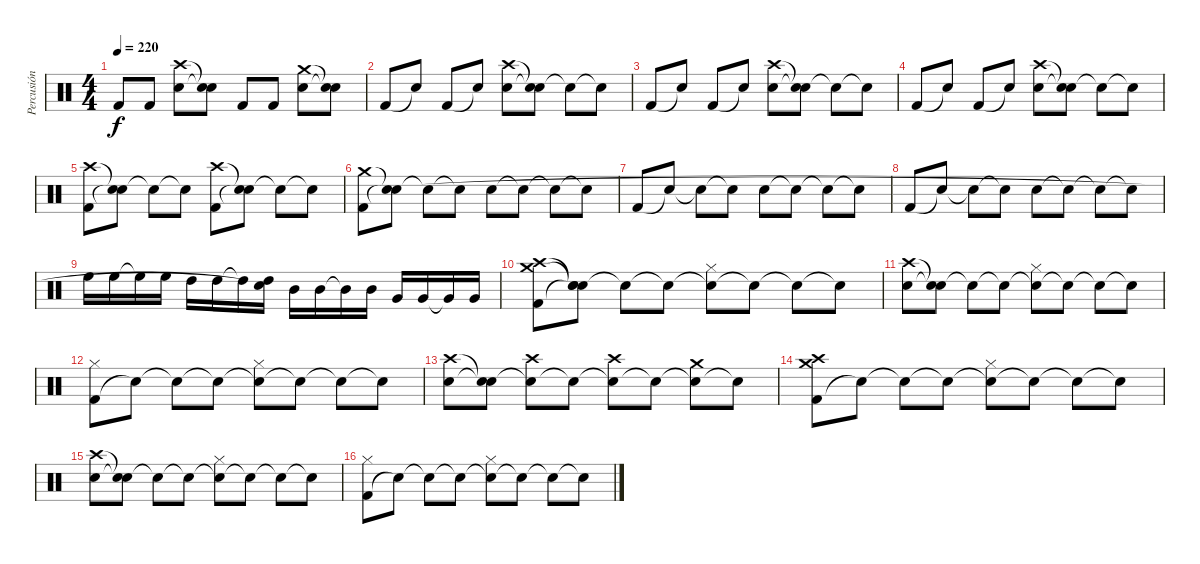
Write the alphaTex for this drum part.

\track ("Percusión" "Percusión") {instrument percussion}
\staff {score}
\articulation defaults
\ts (4 4)
\tempo 220
\clef neutral
\ks c "Kick (hit) 2".8{dy f} "Kick (hit) 2".8
("Snare (hit) 2" "Crash high (hit)").8 ("Snare (hit)"{t} "Snare (hit)"{t}).8 "Kick (hit) 2".8 "Kick (hit) 2".8 ("Snare (hit) 2" "Crash medium (hit)").8 ("Snare (hit)"{t} "Snare (hit)"{t}).8 |
"Kick (hit) 2".8 "Snare (hit)"{t}.8 "Kick (hit) 2".8 "Snare (hit)"{t}.8 ("Snare (hit) 2" "Crash high (hit)").8 ("Snare (hit)"{t} "Snare (hit)"{t}).8 "Snare (hit)"{t}.8 "Snare (hit)"{t}.8 |
"Kick (hit) 2".8 "Snare (hit)"{t}.8 "Kick (hit) 2".8 "Snare (hit)"{t}.8 ("Snare (hit) 2" "Crash high (hit)").8 ("Snare (hit)"{t} "Snare (hit)"{t}).8 "Snare (hit)"{t}.8 "Snare (hit)"{t}.8 |
"Kick (hit) 2".8 "Snare (hit)"{t}.8 "Kick (hit) 2".8 "Snare (hit)"{t}.8 ("Snare (hit) 2" "Crash high (hit)").8 ("Snare (hit)"{t} "Snare (hit)"{t}).8 "Snare (hit)"{t}.8 "Snare (hit)"{t}.8 |
("Kick (hit) 2" "Crash high (hit)").8 ("Snare (hit)"{t} "Snare (hit)"{t}).8 "Snare (hit)"{t}.8 "Snare (hit)"{t}.8 ("Kick (hit) 2" "Crash high (hit)").8 ("Snare (hit)"{t} "Snare (hit)"{t}).8 "Snare (hit)"{t}.8 "Snare (hit)"{t}.8 |
("Kick (hit) 2" "Crash medium (hit)").8 ("Snare (hit)"{t} "Snare (hit)"{t}).8 "Snare (hit)"{t}.8 "Snare (hit)"{t}.8 "Snare (hit) 2".8 "Snare (hit)"{t}.8 "Snare (hit)"{t}.8 "Snare (hit)"{t}.8 |
"Kick (hit) 2".8 "Snare (hit)"{t}.8 "Snare (hit)"{t}.8 "Snare (hit)"{t}.8 "Snare (hit) 2".8 "Snare (hit)"{t}.8 "Snare (hit)"{t}.8 "Snare (hit)"{t}.8 |
"Kick (hit) 2".8 "Snare (hit)"{t}.8 "Snare (hit)"{t}.8 "Snare (hit)"{t}.8 "Snare (hit) 2".8 "Snare (hit)"{t}.8 "Snare (hit)"{t}.8 "Snare (hit)"{t}.8 |
"High Floor Tom (hit)".16 "High Floor Tom (hit)".16 "High Floor Tom (hit)"{t}.16 "High Floor Tom (hit)".16 "High Tom (hit)".16 "High Tom (hit)".16 "High Tom (hit)"{t}.16 ("High Tom (hit)" "Snare (hit)"{t}).16 "Mid Tom (hit)".16 "Mid Tom (hit)".16 "Mid Tom (hit)"{t}.16 "Mid Tom (hit)".16 "Very Low Tom (hit)".16 "Very Low Tom (hit)".16 "Very Low Tom (hit)"{t}.16 "Very Low Tom (hit)".16 |
("Kick (hit) 2" "Crash medium (hit)" "Crash high (hit)").8 ("Snare (hit)"{t} "Snare (hit)"{t} "Snare (hit)"{t}).8 "Snare (hit)"{t}.8 "Snare (hit)"{t}.8 ("Snare (hit) 2"{t} "Hi-Hat (closed)").8 "Snare (hit)"{t}.8 "Snare (hit)"{t}.8 "Snare (hit)"{t}.8 |
("Snare (hit) 2" "Crash high (hit)").8 ("Snare (hit)"{t} "Snare (hit)"{t}).8 "Snare (hit)"{t}.8 "Snare (hit)"{t}.8 ("Snare (hit)"{t} "Hi-Hat (closed)").8 "Snare (hit)"{t}.8 "Snare (hit)"{t}.8 "Snare (hit)"{t}.8 |
("Kick (hit) 2" "Hi-Hat (closed)").8 "Snare (hit)"{t}.8 "Snare (hit)"{t}.8 "Snare (hit)"{t}.8 ("Snare (hit)"{t} "Hi-Hat (closed)").8 "Snare (hit)"{t}.8 "Snare (hit)"{t}.8 "Snare (hit)"{t}.8 |
("Snare (hit) 2" "Crash high (hit)").8 ("Snare (hit)"{t} "Snare (hit)"{t}).8 ("Snare (hit)"{t} "Crash high (hit)").8 "Snare (hit)"{t}.8 ("Snare (hit)"{t} "Crash high (hit)").8 "Snare (hit)"{t}.8 ("Snare (hit)"{t} "Crash medium (hit)").8 "Snare (hit)"{t}.8 |
("Kick (hit) 2" "Crash high (hit)" "Crash medium (hit)").8 "Snare (hit)"{t}.8 "Snare (hit)"{t}.8 "Snare (hit)"{t}.8 ("Snare (hit)"{t} "Hi-Hat (closed)").8 "Snare (hit)"{t}.8 "Snare (hit)"{t}.8 "Snare (hit)"{t}.8 |
("Snare (hit) 2" "Crash high (hit)").8 ("Snare (hit)"{t} "Snare (hit)"{t}).8 "Snare (hit)"{t}.8 "Snare (hit)"{t}.8 ("Snare (hit)"{t} "Hi-Hat (closed)").8 "Snare (hit)"{t}.8 "Snare (hit)"{t}.8 "Snare (hit)"{t}.8 |
("Kick (hit) 2" "Hi-Hat (closed)").8 "Snare (hit)"{t}.8 "Snare (hit)"{t}.8 "Snare (hit)"{t}.8 ("Snare (hit)"{t} "Hi-Hat (closed)").8 "Snare (hit)"{t}.8 "Snare (hit)"{t}.8 "Snare (hit)"{t}.8
